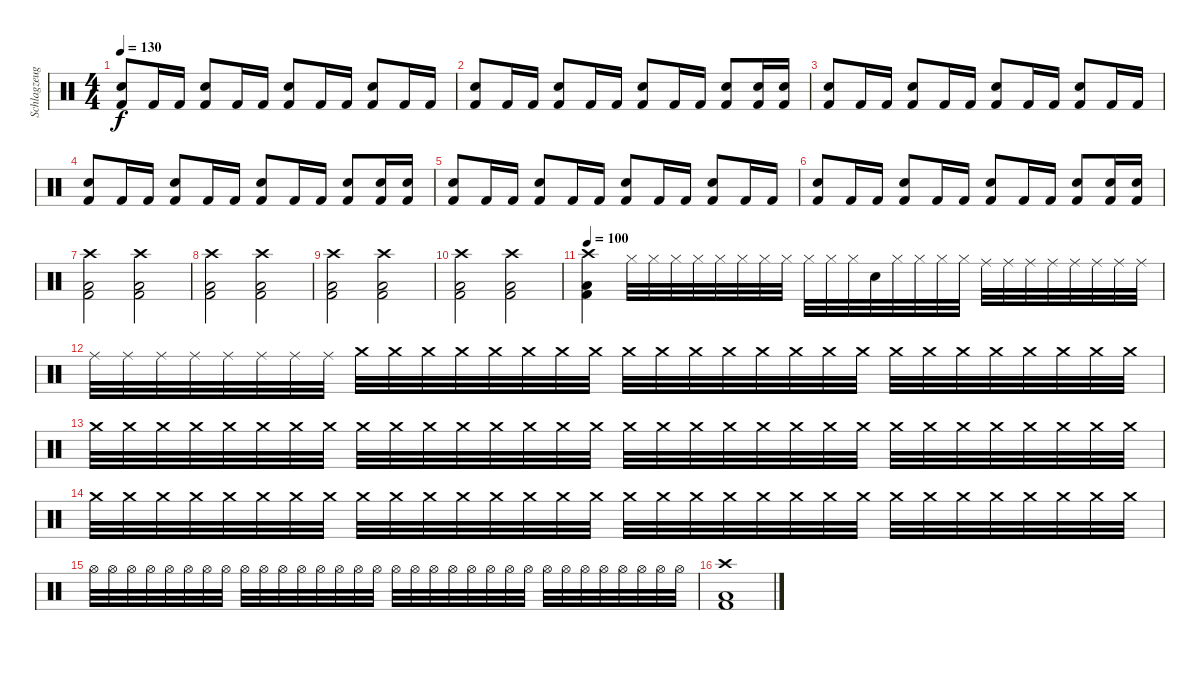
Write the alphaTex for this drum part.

\track ("Schlagzeug" "Schlagzeug") {instrument percussion}
\staff {score}
\articulation defaults
\ts (4 4)
\tempo 130
\clef neutral
\ks c
("Snare (hit) 2" "Kick (hit) 2").8{dy f} "Kick (hit) 2".16 "Kick (hit) 2".16 ("Snare (hit) 2" "Kick (hit) 2").8 "Kick (hit) 2".16 "Kick (hit) 2".16 ("Snare (hit) 2" "Kick (hit) 2").8 "Kick (hit) 2".16 "Kick (hit) 2".16 ("Snare (hit) 2" "Kick (hit) 2").8 "Kick (hit) 2".16 "Kick (hit) 2".16 |
("Snare (hit) 2" "Kick (hit) 2").8 "Kick (hit) 2".16 "Kick (hit) 2".16 ("Snare (hit) 2" "Kick (hit) 2").8 "Kick (hit) 2".16 "Kick (hit) 2".16 ("Snare (hit) 2" "Kick (hit) 2").8 "Kick (hit) 2".16 "Kick (hit) 2".16 ("Snare (hit) 2" "Kick (hit) 2").8 ("Snare (hit) 2" "Kick (hit) 2").16 ("Snare (hit) 2" "Kick (hit) 2").16 |
("Snare (hit) 2" "Kick (hit) 2").8 "Kick (hit) 2".16 "Kick (hit) 2".16 ("Snare (hit) 2" "Kick (hit) 2").8 "Kick (hit) 2".16 "Kick (hit) 2".16 ("Snare (hit) 2" "Kick (hit) 2").8 "Kick (hit) 2".16 "Kick (hit) 2".16 ("Snare (hit) 2" "Kick (hit) 2").8 "Kick (hit) 2".16 "Kick (hit) 2".16 |
("Snare (hit) 2" "Kick (hit) 2").8 "Kick (hit) 2".16 "Kick (hit) 2".16 ("Snare (hit) 2" "Kick (hit) 2").8 "Kick (hit) 2".16 "Kick (hit) 2".16 ("Snare (hit) 2" "Kick (hit) 2").8 "Kick (hit) 2".16 "Kick (hit) 2".16 ("Snare (hit) 2" "Kick (hit) 2").8 ("Snare (hit) 2" "Kick (hit) 2").16 ("Snare (hit) 2" "Kick (hit) 2").16 |
("Snare (hit) 2" "Kick (hit) 2").8 "Kick (hit) 2".16 "Kick (hit) 2".16 ("Snare (hit) 2" "Kick (hit) 2").8 "Kick (hit) 2".16 "Kick (hit) 2".16 ("Snare (hit) 2" "Kick (hit) 2").8 "Kick (hit) 2".16 "Kick (hit) 2".16 ("Snare (hit) 2" "Kick (hit) 2").8 "Kick (hit) 2".16 "Kick (hit) 2".16 |
("Snare (hit) 2" "Kick (hit) 2").8 "Kick (hit) 2".16 "Kick (hit) 2".16 ("Snare (hit) 2" "Kick (hit) 2").8 "Kick (hit) 2".16 "Kick (hit) 2".16 ("Snare (hit) 2" "Kick (hit) 2").8 "Kick (hit) 2".16 "Kick (hit) 2".16 ("Snare (hit) 2" "Kick (hit) 2").8 ("Snare (hit) 2" "Kick (hit) 2").16 ("Snare (hit) 2" "Kick (hit) 2").16 |
("Low Floor Tom (hit)" "Crash high (hit)" "Kick (hit) 2").2 ("Low Floor Tom (hit)" "Crash high (hit)" "Kick (hit) 2").2 |
("Low Floor Tom (hit)" "Crash high (hit)" "Kick (hit) 2").2 ("Low Floor Tom (hit)" "Crash high (hit)" "Kick (hit) 2").2 |
("Low Floor Tom (hit)" "Crash high (hit)" "Kick (hit) 2").2 ("Low Floor Tom (hit)" "Crash high (hit)" "Kick (hit) 2").2 |
("Low Floor Tom (hit)" "Crash high (hit)" "Kick (hit) 2").2 ("Low Floor Tom (hit)" "Crash high (hit)" "Kick (hit) 2").2 |
\tempo 100
("Low Floor Tom (hit)" "Crash high (hit)" "Kick (hit) 2").4 "Hi-Hat (closed)".32 "Hi-Hat (closed)".32 "Hi-Hat (closed)".32 "Hi-Hat (closed)".32 "Hi-Hat (closed)".32 "Hi-Hat (closed)".32 "Hi-Hat (closed)".32 "Hi-Hat (closed)".32 "Hi-Hat (closed)".32 "Hi-Hat (closed)".32 "Hi-Hat (closed)".32 "Snare (hit)".32 "Hi-Hat (closed)".32 "Hi-Hat (closed)".32 "Hi-Hat (closed)".32 "Hi-Hat (closed)".32 "Ride (middle)".32 "Ride (middle)".32 "Ride (middle)".32 "Ride (middle)".32 "Ride (middle)".32 "Ride (middle)".32 "Ride (middle)".32 "Ride (middle)".32 |
"Ride (middle)".32 "Ride (middle)".32 "Ride (middle)".32 "Ride (middle)".32 "Ride (middle)".32 "Ride (middle)".32 "Ride (middle)".32 "Ride (middle)".32 "Crash medium (hit)".32 "Crash medium (hit)".32 "Crash medium (hit)".32 "Crash medium (hit)".32 "Crash medium (hit)".32 "Crash medium (hit)".32 "Crash medium (hit)".32 "Crash medium (hit)".32 "Crash medium (hit)".32 "Crash medium (hit)".32 "Crash medium (hit)".32 "Crash medium (hit)".32 "Crash medium (hit)".32 "Crash medium (hit)".32 "Crash medium (hit)".32 "Crash medium (hit)".32 "Crash medium (hit)".32 "Crash medium (hit)".32 "Crash medium (hit)".32 "Crash medium (hit)".32 "Crash medium (hit)".32 "Crash medium (hit)".32 "Crash medium (hit)".32 "Crash medium (hit)".32 |
"Crash medium (hit)".32 "Crash medium (hit)".32 "Crash medium (hit)".32 "Crash medium (hit)".32 "Crash medium (hit)".32 "Crash medium (hit)".32 "Crash medium (hit)".32 "Crash medium (hit)".32 "Crash medium (hit)".32 "Crash medium (hit)".32 "Crash medium (hit)".32 "Crash medium (hit)".32 "Crash medium (hit)".32 "Crash medium (hit)".32 "Crash medium (hit)".32 "Crash medium (hit)".32 "Crash medium (hit)".32 "Crash medium (hit)".32 "Crash medium (hit)".32 "Crash medium (hit)".32 "Crash medium (hit)".32 "Crash medium (hit)".32 "Crash medium (hit)".32 "Crash medium (hit)".32 "Crash medium (hit)".32 "Crash medium (hit)".32 "Crash medium (hit)".32 "Crash medium (hit)".32 "Crash medium (hit)".32 "Crash medium (hit)".32 "Crash medium (hit)".32 "Crash medium (hit)".32 |
"Crash medium (hit)".32 "Crash medium (hit)".32 "Crash medium (hit)".32 "Crash medium (hit)".32 "Crash medium (hit)".32 "Crash medium (hit)".32 "Crash medium (hit)".32 "Crash medium (hit)".32 "Crash medium (hit)".32 "Crash medium (hit)".32 "Crash medium (hit)".32 "Crash medium (hit)".32 "Crash medium (hit)".32 "Crash medium (hit)".32 "Crash medium (hit)".32 "Crash medium (hit)".32 "Crash medium (hit)".32 "Crash medium (hit)".32 "Crash medium (hit)".32 "Crash medium (hit)".32 "Crash medium (hit)".32 "Crash medium (hit)".32 "Crash medium (hit)".32 "Crash medium (hit)".32 "Crash medium (hit)".32 "Crash medium (hit)".32 "Crash medium (hit)".32 "Crash medium (hit)".32 "Crash medium (hit)".32 "Crash medium (hit)".32 "Crash medium (hit)".32 "Crash medium (hit)".32 |
"Hi-Hat (open)".32 "Hi-Hat (open)".32 "Hi-Hat (open)".32 "Hi-Hat (open)".32 "Hi-Hat (open)".32 "Hi-Hat (open)".32 "Hi-Hat (open)".32 "Hi-Hat (open)".32 "Hi-Hat (open)".32 "Hi-Hat (open)".32 "Hi-Hat (open)".32 "Hi-Hat (open)".32 "Hi-Hat (open)".32 "Hi-Hat (open)".32 "Hi-Hat (open)".32 "Hi-Hat (open)".32 "Hi-Hat (open)".32 "Hi-Hat (open)".32 "Hi-Hat (open)".32 "Hi-Hat (open)".32 "Hi-Hat (open)".32 "Hi-Hat (open)".32 "Hi-Hat (open)".32 "Hi-Hat (open)".32 "Hi-Hat (open)".32 "Hi-Hat (open)".32 "Hi-Hat (open)".32 "Hi-Hat (open)".32 "Hi-Hat (open)".32 "Hi-Hat (open)".32 "Hi-Hat (open)".32 "Hi-Hat (open)".32 |
("Low Floor Tom (hit)" "Crash high (hit)" "Kick (hit) 2").1
